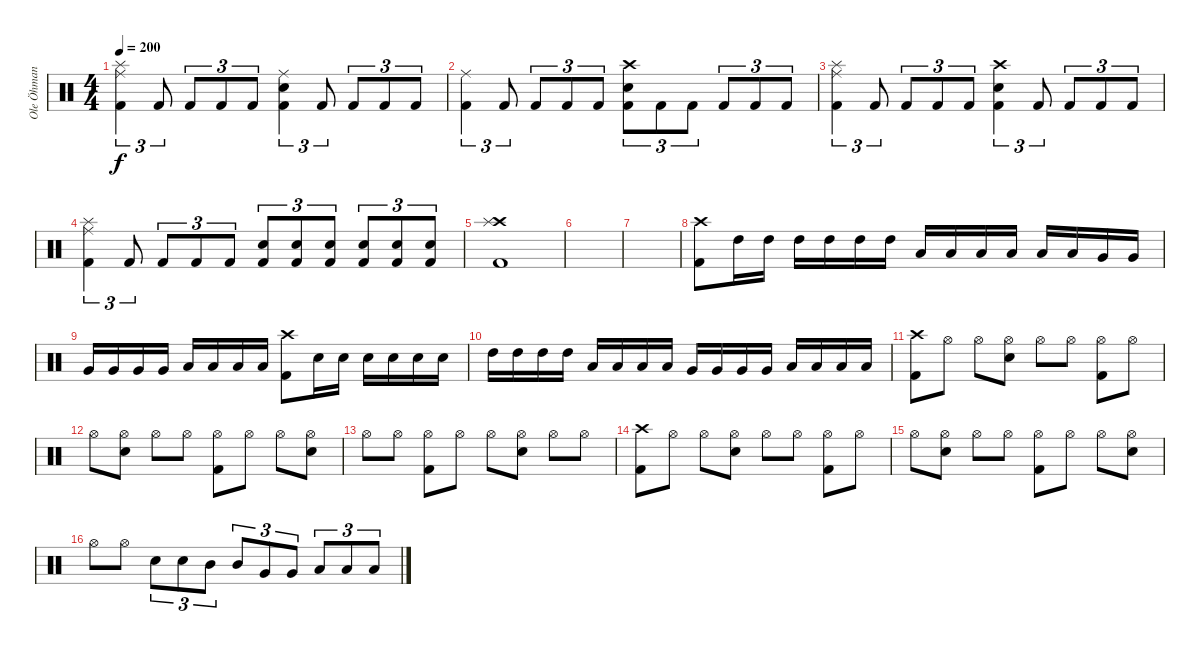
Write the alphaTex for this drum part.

\track ("Ole Öhman" "Ole Öhman") {instrument percussion}
\staff {score}
\articulation defaults
\ts (4 4)
\tempo 200
\clef neutral
\ks c
("Splash (hit)" "Ride (middle)" "Kick (hit) 2").4{tu (3 2) dy f} "Kick (hit) 2".8{tu (3 2)} "Kick (hit) 2".8{tu (3 2)} "Kick (hit) 2".8{tu (3 2)} "Kick (hit) 2".8{tu (3 2)} ("Ride (middle)" "Snare (hit) 2" "Kick (hit) 2").4{tu (3 2)} "Kick (hit) 2".8{tu (3 2)} "Kick (hit) 2".8{tu (3 2)} "Kick (hit) 2".8{tu (3 2)} "Kick (hit) 2".8{tu (3 2)} |
("Ride (middle)" "Kick (hit) 2").4{tu (3 2)} "Kick (hit) 2".8{tu (3 2)} "Kick (hit) 2".8{tu (3 2)} "Kick (hit) 2".8{tu (3 2)} "Kick (hit) 2".8{tu (3 2)} ("Crash high (hit)" "Snare (hit) 2" "Kick (hit) 2").8{tu (3 2)} "Kick (hit) 2".8{tu (3 2)} "Kick (hit) 2".8{tu (3 2)} "Kick (hit) 2".8{tu (3 2)} "Kick (hit) 2".8{tu (3 2)} "Kick (hit) 2".8{tu (3 2)} |
("Splash (hit)" "Ride (middle)" "Kick (hit) 2").4{tu (3 2)} "Kick (hit) 2".8{tu (3 2)} "Kick (hit) 2".8{tu (3 2)} "Kick (hit) 2".8{tu (3 2)} "Kick (hit) 2".8{tu (3 2)} ("Crash high (hit)" "Snare (hit) 2" "Kick (hit) 2").4{tu (3 2)} "Kick (hit) 2".8{tu (3 2)} "Kick (hit) 2".8{tu (3 2)} "Kick (hit) 2".8{tu (3 2)} "Kick (hit) 2".8{tu (3 2)} |
("Splash (hit)" "Ride (middle)" "Kick (hit) 2").4{tu (3 2)} "Kick (hit) 2".8{tu (3 2)} "Kick (hit) 2".8{tu (3 2)} "Kick (hit) 2".8{tu (3 2)} "Kick (hit) 2".8{tu (3 2)} ("Snare (hit) 2" "Kick (hit) 2").8{tu (3 2)} ("Snare (hit) 2" "Kick (hit) 2").8{tu (3 2)} ("Snare (hit) 2" "Kick (hit) 2").8{tu (3 2)} ("Snare (hit) 2" "Kick (hit) 2").8{tu (3 2)} ("Snare (hit) 2" "Kick (hit) 2").8{tu (3 2)} ("Snare (hit) 2" "Kick (hit) 2").8{tu (3 2)} |
("Crash high (hit)" "Splash (hit)" "Kick (hit) 2").1 |
|
|
("Crash high (hit)" "Kick (hit) 2").8 "High Tom (hit)".16 "High Tom (hit)".16 "High Tom (hit)".16 "High Tom (hit)".16 "High Tom (hit)".16 "High Tom (hit)".16 "Low Tom (hit)".16 "Low Tom (hit)".16 "Low Tom (hit)".16 "Low Tom (hit)".16 "Low Tom (hit)".16 "Low Tom (hit)".16 "Very Low Tom (hit)".16 "Very Low Tom (hit)".16 |
"Very Low Tom (hit)".16 "Very Low Tom (hit)".16 "Very Low Tom (hit)".16 "Very Low Tom (hit)".16 "Low Floor Tom (hit)".16 "Low Floor Tom (hit)".16 "Low Floor Tom (hit)".16 "Low Floor Tom (hit)".16 ("Crash high (hit)" "Kick (hit) 2").8 "Snare (hit) 2".16 "Snare (hit) 2".16 "Snare (hit) 2".16 "Snare (hit) 2".16 "Snare (hit) 2".16 "Snare (hit) 2".16 |
"High Tom (hit)".16 "High Tom (hit)".16 "High Tom (hit)".16 "High Tom (hit)".16 "Low Tom (hit)".16 "Low Tom (hit)".16 "Low Tom (hit)".16 "Low Tom (hit)".16 "Very Low Tom (hit)".16 "Very Low Tom (hit)".16 "Very Low Tom (hit)".16 "Very Low Tom (hit)".16 "Low Floor Tom (hit)".16 "Low Floor Tom (hit)".16 "Low Floor Tom (hit)".16 "Low Floor Tom (hit)".16 |
("Crash high (hit)" "Kick (hit) 2").8 "Hi-Hat (open)".8 "Hi-Hat (open)".8 ("Hi-Hat (open)" "Snare (hit) 2").8 "Hi-Hat (open)".8 "Hi-Hat (open)".8 ("Hi-Hat (open)" "Kick (hit) 2").8 "Hi-Hat (open)".8 |
"Hi-Hat (open)".8 ("Hi-Hat (open)" "Snare (hit) 2").8 "Hi-Hat (open)".8 "Hi-Hat (open)".8 ("Hi-Hat (open)" "Kick (hit) 2").8 "Hi-Hat (open)".8 "Hi-Hat (open)".8 ("Hi-Hat (open)" "Snare (hit) 2").8 |
"Hi-Hat (open)".8 "Hi-Hat (open)".8 ("Hi-Hat (open)" "Kick (hit) 2").8 "Hi-Hat (open)".8 "Hi-Hat (open)".8 ("Hi-Hat (open)" "Snare (hit) 2").8 "Hi-Hat (open)".8 "Hi-Hat (open)".8 |
("Crash high (hit)" "Kick (hit) 2").8 "Hi-Hat (open)".8 "Hi-Hat (open)".8 ("Hi-Hat (open)" "Snare (hit) 2").8 "Hi-Hat (open)".8 "Hi-Hat (open)".8 ("Hi-Hat (open)" "Kick (hit) 2").8 "Hi-Hat (open)".8 |
"Hi-Hat (open)".8 ("Hi-Hat (open)" "Snare (hit) 2").8 "Hi-Hat (open)".8 "Hi-Hat (open)".8 ("Hi-Hat (open)" "Kick (hit) 2").8 "Hi-Hat (open)".8 "Hi-Hat (open)".8 ("Hi-Hat (open)" "Snare (hit) 2").8 |
"Hi-Hat (open)".8 "Hi-Hat (open)".8 "Snare (hit) 2".8{tu (3 2)} "Snare (hit) 2".8{tu (3 2)} "Mid Tom (hit)".8{tu (3 2)} "Mid Tom (hit)".8{tu (3 2)} "Very Low Tom (hit)".8{tu (3 2)} "Very Low Tom (hit)".8{tu (3 2)} "Low Floor Tom (hit)".8{tu (3 2)} "Low Floor Tom (hit)".8{tu (3 2)} "Low Floor Tom (hit)".8{tu (3 2)}
